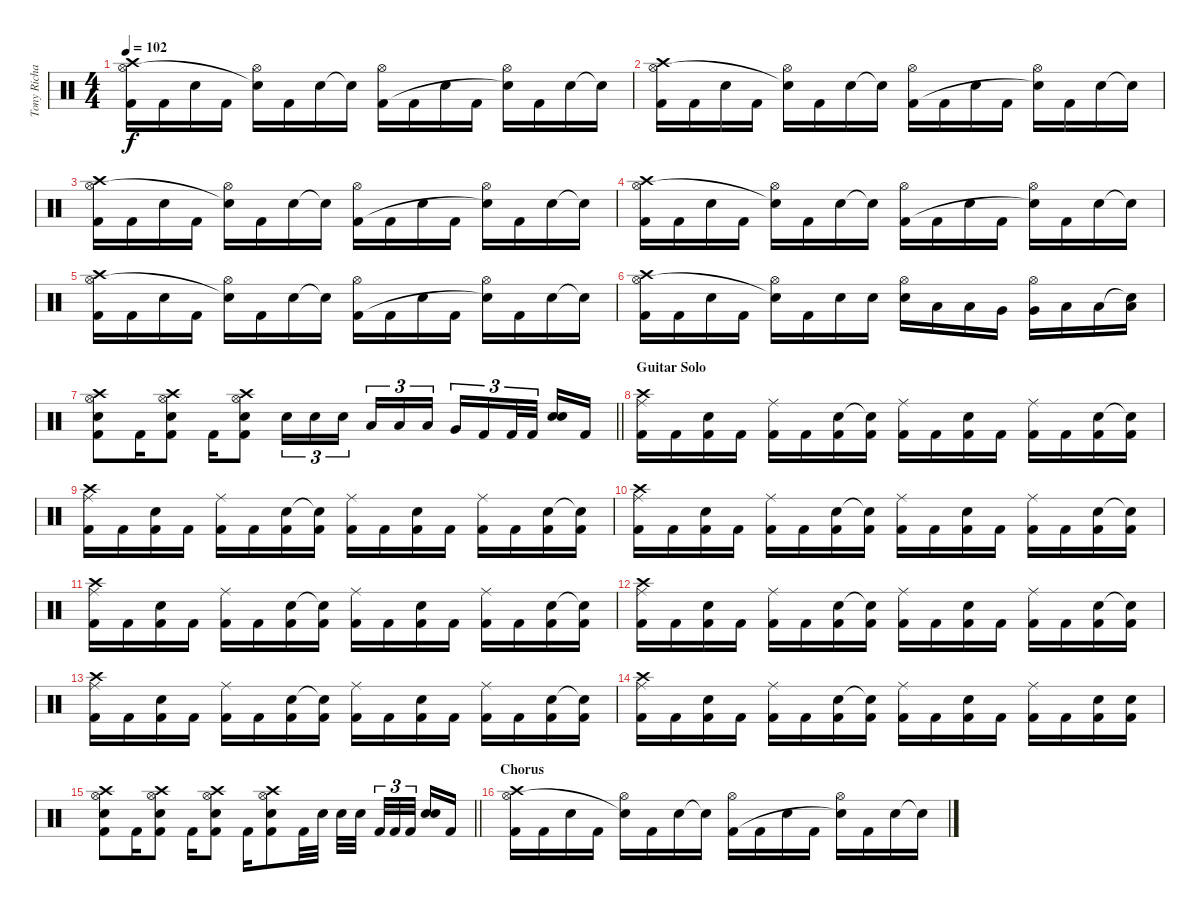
\track ("Tony Richards (drums)" "Tony Richa") {instrument percussion}
\staff {score}
\articulation defaults
\ts (4 4)
\tempo 102
\clef neutral
\ks c
("Crash high (hit)" "Hi-Hat (open)" "Kick (hit) 2").16{dy f} "Kick (hit) 2".16 "Snare (hit) 2".16 "Kick (hit) 2".16 ("Hi-Hat (open)" "Snare (hit)"{t}).16 "Kick (hit) 2".16 "Snare (hit) 2".16 "Snare (hit)"{t}.16 ("Hi-Hat (open)" "Kick (hit) 2").16 "Kick (hit) 2".16 "Snare (hit) 2".16 "Kick (hit) 2".16 ("Hi-Hat (open)" "Snare (hit)"{t}).16 "Kick (hit) 2".16 "Snare (hit) 2".16 "Snare (hit)"{t}.16 |
("Crash high (hit)" "Hi-Hat (open)" "Kick (hit) 2").16 "Kick (hit) 2".16 "Snare (hit) 2".16 "Kick (hit) 2".16 ("Hi-Hat (open)" "Snare (hit)"{t}).16 "Kick (hit) 2".16 "Snare (hit) 2".16 "Snare (hit)"{t}.16 ("Hi-Hat (open)" "Kick (hit) 2").16 "Kick (hit) 2".16 "Snare (hit) 2".16 "Kick (hit) 2".16 ("Hi-Hat (open)" "Snare (hit)"{t}).16 "Kick (hit) 2".16 "Snare (hit) 2".16 "Snare (hit)"{t}.16 |
("Crash high (hit)" "Hi-Hat (open)" "Kick (hit) 2").16 "Kick (hit) 2".16 "Snare (hit) 2".16 "Kick (hit) 2".16 ("Hi-Hat (open)" "Snare (hit)"{t}).16 "Kick (hit) 2".16 "Snare (hit) 2".16 "Snare (hit)"{t}.16 ("Hi-Hat (open)" "Kick (hit) 2").16 "Kick (hit) 2".16 "Snare (hit) 2".16 "Kick (hit) 2".16 ("Hi-Hat (open)" "Snare (hit)"{t}).16 "Kick (hit) 2".16 "Snare (hit) 2".16 "Snare (hit)"{t}.16 |
("Crash high (hit)" "Hi-Hat (open)" "Kick (hit) 2").16 "Kick (hit) 2".16 "Snare (hit) 2".16 "Kick (hit) 2".16 ("Hi-Hat (open)" "Snare (hit)"{t}).16 "Kick (hit) 2".16 "Snare (hit) 2".16 "Snare (hit)"{t}.16 ("Hi-Hat (open)" "Kick (hit) 2").16 "Kick (hit) 2".16 "Snare (hit) 2".16 "Kick (hit) 2".16 ("Hi-Hat (open)" "Snare (hit)"{t}).16 "Kick (hit) 2".16 "Snare (hit) 2".16 "Snare (hit)"{t}.16 |
("Crash high (hit)" "Hi-Hat (open)" "Kick (hit) 2").16 "Kick (hit) 2".16 "Snare (hit) 2".16 "Kick (hit) 2".16 ("Hi-Hat (open)" "Snare (hit)"{t}).16 "Kick (hit) 2".16 "Snare (hit) 2".16 "Snare (hit)"{t}.16 ("Hi-Hat (open)" "Kick (hit) 2").16 "Kick (hit) 2".16 "Snare (hit) 2".16 "Kick (hit) 2".16 ("Hi-Hat (open)" "Snare (hit)"{t}).16 "Kick (hit) 2".16 "Snare (hit) 2".16 "Snare (hit)"{t}.16 |
("Crash high (hit)" "Hi-Hat (open)" "Kick (hit) 2").16 "Kick (hit) 2".16 "Snare (hit) 2".16 "Kick (hit) 2".16 ("Hi-Hat (open)" "Snare (hit)"{t}).16 "Kick (hit) 2".16 "Snare (hit) 2".16 "Snare (hit) 2".16 ("Hi-Hat (open)" "Snare (hit) 2").16 "Low Tom (hit)".16 "Low Tom (hit)".16 "Very Low Tom (hit)".16 ("Hi-Hat (open)" "Very Low Tom (hit)").16 "Low Floor Tom (hit)".16 "Low Floor Tom (hit)".16 ("Snare (hit)"{t} "Low Floor Tom (hit)").16 |
\barLineRight lightlight
("Crash high (hit)" "Hi-Hat (open)" "Snare (hit) 2" "Kick (hit) 2").8 "Kick (hit) 2".16 ("Crash high (hit)" "Hi-Hat (open)" "Snare (hit) 2" "Kick (hit) 2").8 "Kick (hit) 2".16 ("Crash high (hit)" "Hi-Hat (open)" "Snare (hit) 2" "Kick (hit) 2").8 "Snare (hit) 2".16{tu (3 2)} "Snare (hit) 2".16{tu (3 2)} "Snare (hit) 2".16{tu (3 2) beam splitsecondary} "Low Tom (hit)".16{tu (3 2)} "Low Tom (hit)".16{tu (3 2)} "Low Tom (hit)".16{tu (3 2)} "Very Low Tom (hit)".16{tu (3 2)} "Kick (hit) 2".16{tu (3 2)} "Kick (hit) 2".32{tu (3 2)} "Kick (hit) 2".32{tu (3 2) beam splitsecondary} ("Snare (hit) 2" "Snare (hit) 2").16 "Kick (hit) 2".16 |
\section ("" "Guitar Solo")
("Crash high (hit)" "Ride (middle)" "Kick (hit) 2").16 "Kick (hit) 2".16 ("Snare (hit) 2" "Kick (hit) 2").16 "Kick (hit) 2".16 ("Ride (middle)" "Kick (hit) 2").16 "Kick (hit) 2".16 ("Snare (hit) 2" "Kick (hit) 2").16 ("Snare (hit)"{t} "Kick (hit) 2").16 ("Ride (middle)" "Kick (hit) 2").16 "Kick (hit) 2".16 ("Snare (hit) 2" "Kick (hit) 2").16 "Kick (hit) 2".16 ("Ride (middle)" "Kick (hit) 2").16 "Kick (hit) 2".16 ("Snare (hit) 2" "Kick (hit) 2").16 ("Snare (hit)"{t} "Kick (hit) 2").16 |
("Crash high (hit)" "Ride (middle)" "Kick (hit) 2").16 "Kick (hit) 2".16 ("Snare (hit) 2" "Kick (hit) 2").16 "Kick (hit) 2".16 ("Ride (middle)" "Kick (hit) 2").16 "Kick (hit) 2".16 ("Snare (hit) 2" "Kick (hit) 2").16 ("Snare (hit)"{t} "Kick (hit) 2").16 ("Ride (middle)" "Kick (hit) 2").16 "Kick (hit) 2".16 ("Snare (hit) 2" "Kick (hit) 2").16 "Kick (hit) 2".16 ("Ride (middle)" "Kick (hit) 2").16 "Kick (hit) 2".16 ("Snare (hit) 2" "Kick (hit) 2").16 ("Snare (hit)"{t} "Kick (hit) 2").16 |
("Crash high (hit)" "Ride (middle)" "Kick (hit) 2").16 "Kick (hit) 2".16 ("Snare (hit) 2" "Kick (hit) 2").16 "Kick (hit) 2".16 ("Ride (middle)" "Kick (hit) 2").16 "Kick (hit) 2".16 ("Snare (hit) 2" "Kick (hit) 2").16 ("Snare (hit)"{t} "Kick (hit) 2").16 ("Ride (middle)" "Kick (hit) 2").16 "Kick (hit) 2".16 ("Snare (hit) 2" "Kick (hit) 2").16 "Kick (hit) 2".16 ("Ride (middle)" "Kick (hit) 2").16 "Kick (hit) 2".16 ("Snare (hit) 2" "Kick (hit) 2").16 ("Snare (hit)"{t} "Kick (hit) 2").16 |
("Crash high (hit)" "Ride (middle)" "Kick (hit) 2").16 "Kick (hit) 2".16 ("Snare (hit) 2" "Kick (hit) 2").16 "Kick (hit) 2".16 ("Ride (middle)" "Kick (hit) 2").16 "Kick (hit) 2".16 ("Snare (hit) 2" "Kick (hit) 2").16 ("Snare (hit)"{t} "Kick (hit) 2").16 ("Ride (middle)" "Kick (hit) 2").16 "Kick (hit) 2".16 ("Snare (hit) 2" "Kick (hit) 2").16 "Kick (hit) 2".16 ("Ride (middle)" "Kick (hit) 2").16 "Kick (hit) 2".16 ("Snare (hit) 2" "Kick (hit) 2").16 ("Snare (hit)"{t} "Kick (hit) 2").16 |
("Crash high (hit)" "Ride (middle)" "Kick (hit) 2").16 "Kick (hit) 2".16 ("Snare (hit) 2" "Kick (hit) 2").16 "Kick (hit) 2".16 ("Ride (middle)" "Kick (hit) 2").16 "Kick (hit) 2".16 ("Snare (hit) 2" "Kick (hit) 2").16 ("Snare (hit)"{t} "Kick (hit) 2").16 ("Ride (middle)" "Kick (hit) 2").16 "Kick (hit) 2".16 ("Snare (hit) 2" "Kick (hit) 2").16 "Kick (hit) 2".16 ("Ride (middle)" "Kick (hit) 2").16 "Kick (hit) 2".16 ("Snare (hit) 2" "Kick (hit) 2").16 ("Snare (hit)"{t} "Kick (hit) 2").16 |
("Crash high (hit)" "Ride (middle)" "Kick (hit) 2").16 "Kick (hit) 2".16 ("Snare (hit) 2" "Kick (hit) 2").16 "Kick (hit) 2".16 ("Ride (middle)" "Kick (hit) 2").16 "Kick (hit) 2".16 ("Snare (hit) 2" "Kick (hit) 2").16 ("Snare (hit)"{t} "Kick (hit) 2").16 ("Ride (middle)" "Kick (hit) 2").16 "Kick (hit) 2".16 ("Snare (hit) 2" "Kick (hit) 2").16 "Kick (hit) 2".16 ("Ride (middle)" "Kick (hit) 2").16 "Kick (hit) 2".16 ("Snare (hit) 2" "Kick (hit) 2").16 ("Snare (hit)"{t} "Kick (hit) 2").16 |
("Crash high (hit)" "Ride (middle)" "Kick (hit) 2").16 "Kick (hit) 2".16 ("Snare (hit) 2" "Kick (hit) 2").16 "Kick (hit) 2".16 ("Ride (middle)" "Kick (hit) 2").16 "Kick (hit) 2".16 ("Snare (hit) 2" "Kick (hit) 2").16 ("Snare (hit)"{t} "Kick (hit) 2").16 ("Ride (middle)" "Kick (hit) 2").16 "Kick (hit) 2".16 ("Snare (hit) 2" "Kick (hit) 2").16 "Kick (hit) 2".16 ("Ride (middle)" "Kick (hit) 2").16 "Kick (hit) 2".16 ("Snare (hit) 2" "Kick (hit) 2").16 ("Snare (hit) 2" "Kick (hit) 2").16 |
\barLineRight lightlight
("Crash high (hit)" "Hi-Hat (open)" "Snare (hit) 2" "Kick (hit) 2").8 "Kick (hit) 2".16 ("Crash high (hit)" "Hi-Hat (open)" "Snare (hit) 2" "Kick (hit) 2").8 "Kick (hit) 2".16 ("Crash high (hit)" "Hi-Hat (open)" "Snare (hit) 2" "Kick (hit) 2").8 "Kick (hit) 2".16 ("Crash high (hit)" "Hi-Hat (open)" "Snare (hit) 2" "Kick (hit) 2").8 "Kick (hit) 2".32 "Snare (hit) 2".32 "Snare (hit) 2".32 "Snare (hit) 2".32{beam splitsecondary} "Kick (hit) 2".32{tu (3 2)} "Kick (hit) 2".32{tu (3 2)} "Kick (hit) 2".32{tu (3 2) beam splitsecondary} ("Snare (hit) 2" "Snare (hit) 2").16 "Kick (hit) 2".16 |
\section ("" "Chorus")
("Crash high (hit)" "Hi-Hat (open)" "Kick (hit) 2").16 "Kick (hit) 2".16 "Snare (hit) 2".16 "Kick (hit) 2".16 ("Hi-Hat (open)" "Snare (hit)"{t}).16 "Kick (hit) 2".16 "Snare (hit) 2".16 "Snare (hit)"{t}.16 ("Hi-Hat (open)" "Kick (hit) 2").16 "Kick (hit) 2".16 "Snare (hit) 2".16 "Kick (hit) 2".16 ("Hi-Hat (open)" "Snare (hit)"{t}).16 "Kick (hit) 2".16 "Snare (hit) 2".16 "Snare (hit)"{t}.16
